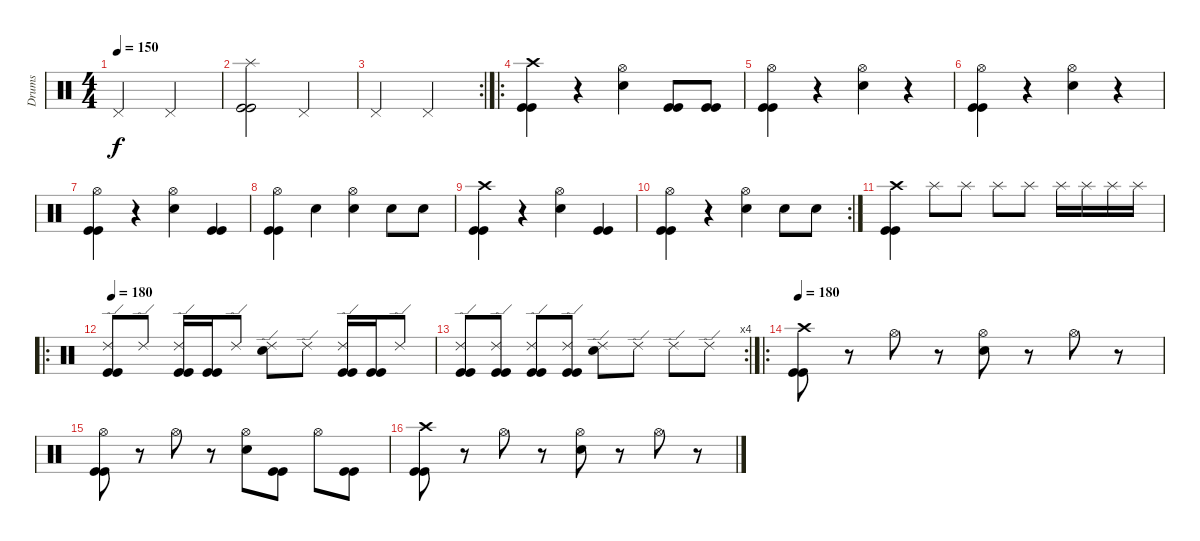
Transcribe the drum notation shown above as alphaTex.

\track ("Drums" "Drums") {instrument percussion}
\staff {score}
\articulation defaults
\ts (4 4)
\tempo 150
\clef neutral
\ks c "Pedal Hi-Hat (hit)".2{dy f} "Pedal Hi-Hat (hit)".2
|
("Splash (hit)" "Kick (hit)" "Kick (hit)").2 "Pedal Hi-Hat (hit)".2 |
\rc 2 "Pedal Hi-Hat (hit)".2 "Pedal Hi-Hat (hit)".2
|
\ro
("Crash high (hit)" "Kick (hit)" "Kick (hit)").4 r.4 ("Hi-Hat (open)" "Snare (hit) 2").4 ("Kick (hit)" "Kick (hit)").8 ("Kick (hit)" "Kick (hit)").8 |
("Hi-Hat (open)" "Kick (hit)" "Kick (hit)").4 r.4 ("Hi-Hat (open)" "Snare (hit) 2").4 r.4 |
("Hi-Hat (open)" "Kick (hit)" "Kick (hit)").4 r.4 ("Hi-Hat (open)" "Snare (hit) 2").4 r.4 |
("Hi-Hat (open)" "Kick (hit)" "Kick (hit)").4 r.4 ("Hi-Hat (open)" "Snare (hit) 2").4 ("Kick (hit)" "Kick (hit)").4 |
("Hi-Hat (open)" "Kick (hit)" "Kick (hit)").4 "Snare (hit) 2".4 ("Hi-Hat (open)" "Snare (hit) 2").4 "Snare (hit) 2".8 "Snare (hit) 2".8 |
("Crash high (hit)" "Kick (hit)" "Kick (hit)").4 r.4 ("Hi-Hat (open)" "Snare (hit) 2").4 ("Kick (hit)" "Kick (hit)").4 |
\rc 2
("Hi-Hat (open)" "Kick (hit)" "Kick (hit)").4 r.4 ("Hi-Hat (open)" "Snare (hit) 2").4 "Snare (hit) 2".8 "Snare (hit) 2".8 |
("Crash high (hit)" "Kick (hit)" "Kick (hit)").4 "Splash (hit)".8 "Splash (hit)".8 "Splash (hit)".8 "Splash (hit)".8 "Splash (hit)".16 "Splash (hit)".16 "Splash (hit)".16 "Splash (hit)".16 |
\ro
\tempo 180
("Ride (edge) 2" "Kick (hit)" "Kick (hit)").8 "Ride (edge) 2".8 ("Ride (edge) 2" "Kick (hit)" "Kick (hit)").16 ("Kick (hit)" "Kick (hit)").16 "Ride (edge) 2".8 ("Ride (edge) 2" "Snare (hit) 2").8 "Ride (edge) 2".8 ("Ride (edge) 2" "Kick (hit)" "Kick (hit)").16 ("Kick (hit)" "Kick (hit)").16 "Ride (edge) 2".8 |
\rc 4
("Ride (edge) 2" "Kick (hit)" "Kick (hit)").8 ("Ride (edge) 2" "Kick (hit)" "Kick (hit)").8 ("Ride (edge) 2" "Kick (hit)" "Kick (hit)").8 ("Ride (edge) 2" "Kick (hit)" "Kick (hit)").8 ("Ride (edge) 2" "Snare (hit) 2").8 "Ride (edge) 2".8 "Ride (edge) 2".8 "Ride (edge) 2".8 |
\ro
\tempo 180
("Crash high (hit)" "Kick (hit)" "Kick (hit)").8 r.8 "Hi-Hat (open)".8 r.8 ("Hi-Hat (open)" "Snare (hit) 2").8 r.8 "Hi-Hat (open)".8 r.8 |
("Hi-Hat (open)" "Kick (hit)" "Kick (hit)").8 r.8 "Hi-Hat (open)".8 r.8 ("Hi-Hat (open)" "Snare (hit) 2").8 ("Kick (hit)" "Kick (hit)").8 "Hi-Hat (open)".8 ("Kick (hit)" "Kick (hit)").8 |
("Crash high (hit)" "Kick (hit)" "Kick (hit)").8 r.8 "Hi-Hat (open)".8 r.8 ("Hi-Hat (open)" "Snare (hit) 2").8 r.8 "Hi-Hat (open)".8 r.8
